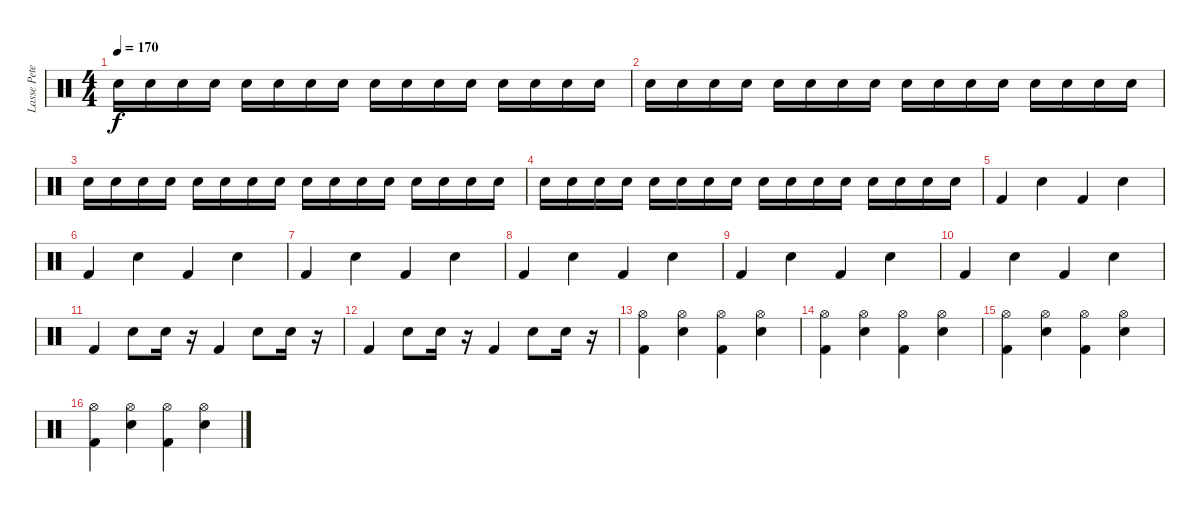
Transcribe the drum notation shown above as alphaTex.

\track ("Lasse Peterson" "Lasse Pete") {instrument percussion}
\staff {score}
\articulation defaults
\ts (4 4)
\tempo 170
\clef neutral
\ks c "Snare (hit) 2".16{dy f} "Snare (hit) 2".16 "Snare (hit) 2".16 "Snare (hit) 2".16 "Snare (hit) 2".16 "Snare (hit) 2".16 "Snare (hit) 2".16 "Snare (hit) 2".16 "Snare (hit) 2".16 "Snare (hit) 2".16 "Snare (hit) 2".16 "Snare (hit) 2".16 "Snare (hit) 2".16 "Snare (hit) 2".16 "Snare (hit) 2".16 "Snare (hit) 2".16
|
"Snare (hit) 2".16 "Snare (hit) 2".16 "Snare (hit) 2".16 "Snare (hit) 2".16 "Snare (hit) 2".16 "Snare (hit) 2".16 "Snare (hit) 2".16 "Snare (hit) 2".16 "Snare (hit) 2".16 "Snare (hit) 2".16 "Snare (hit) 2".16 "Snare (hit) 2".16 "Snare (hit) 2".16 "Snare (hit) 2".16 "Snare (hit) 2".16 "Snare (hit) 2".16 |
"Snare (hit) 2".16 "Snare (hit) 2".16 "Snare (hit) 2".16 "Snare (hit) 2".16 "Snare (hit) 2".16 "Snare (hit) 2".16 "Snare (hit) 2".16 "Snare (hit) 2".16 "Snare (hit) 2".16 "Snare (hit) 2".16 "Snare (hit) 2".16 "Snare (hit) 2".16 "Snare (hit) 2".16 "Snare (hit) 2".16 "Snare (hit) 2".16 "Snare (hit) 2".16 |
"Snare (hit) 2".16 "Snare (hit) 2".16 "Snare (hit) 2".16 "Snare (hit) 2".16 "Snare (hit) 2".16 "Snare (hit) 2".16 "Snare (hit) 2".16 "Snare (hit) 2".16 "Snare (hit) 2".16 "Snare (hit) 2".16 "Snare (hit) 2".16 "Snare (hit) 2".16 "Snare (hit) 2".16 "Snare (hit) 2".16 "Snare (hit) 2".16 "Snare (hit) 2".16 |
"Kick (hit) 2".4 "Snare (hit) 2".4 "Kick (hit) 2".4 "Snare (hit) 2".4 |
"Kick (hit) 2".4 "Snare (hit) 2".4 "Kick (hit) 2".4 "Snare (hit) 2".4 |
"Kick (hit) 2".4 "Snare (hit) 2".4 "Kick (hit) 2".4 "Snare (hit) 2".4 |
"Kick (hit) 2".4 "Snare (hit) 2".4 "Kick (hit) 2".4 "Snare (hit) 2".4 |
"Kick (hit) 2".4 "Snare (hit) 2".4 "Kick (hit) 2".4 "Snare (hit) 2".4 |
"Kick (hit) 2".4 "Snare (hit) 2".4 "Kick (hit) 2".4 "Snare (hit) 2".4 |
"Kick (hit) 2".4 "Snare (hit) 2".8 "Snare (hit) 2".16 r.16 "Kick (hit) 2".4 "Snare (hit) 2".8 "Snare (hit) 2".16 r.16 |
"Kick (hit) 2".4 "Snare (hit) 2".8 "Snare (hit) 2".16 r.16 "Kick (hit) 2".4 "Snare (hit) 2".8 "Snare (hit) 2".16 r.16 |
("Hi-Hat (open)" "Kick (hit) 2").4 ("Hi-Hat (open)" "Snare (hit) 2").4 ("Hi-Hat (open)" "Kick (hit) 2").4 ("Hi-Hat (open)" "Snare (hit) 2").4 |
("Hi-Hat (open)" "Kick (hit) 2").4 ("Hi-Hat (open)" "Snare (hit) 2").4 ("Hi-Hat (open)" "Kick (hit) 2").4 ("Hi-Hat (open)" "Snare (hit) 2").4 |
("Hi-Hat (open)" "Kick (hit) 2").4 ("Hi-Hat (open)" "Snare (hit) 2").4 ("Hi-Hat (open)" "Kick (hit) 2").4 ("Hi-Hat (open)" "Snare (hit) 2").4 |
("Hi-Hat (open)" "Kick (hit) 2").4 ("Hi-Hat (open)" "Snare (hit) 2").4 ("Hi-Hat (open)" "Kick (hit) 2").4 ("Hi-Hat (open)" "Snare (hit) 2").4
